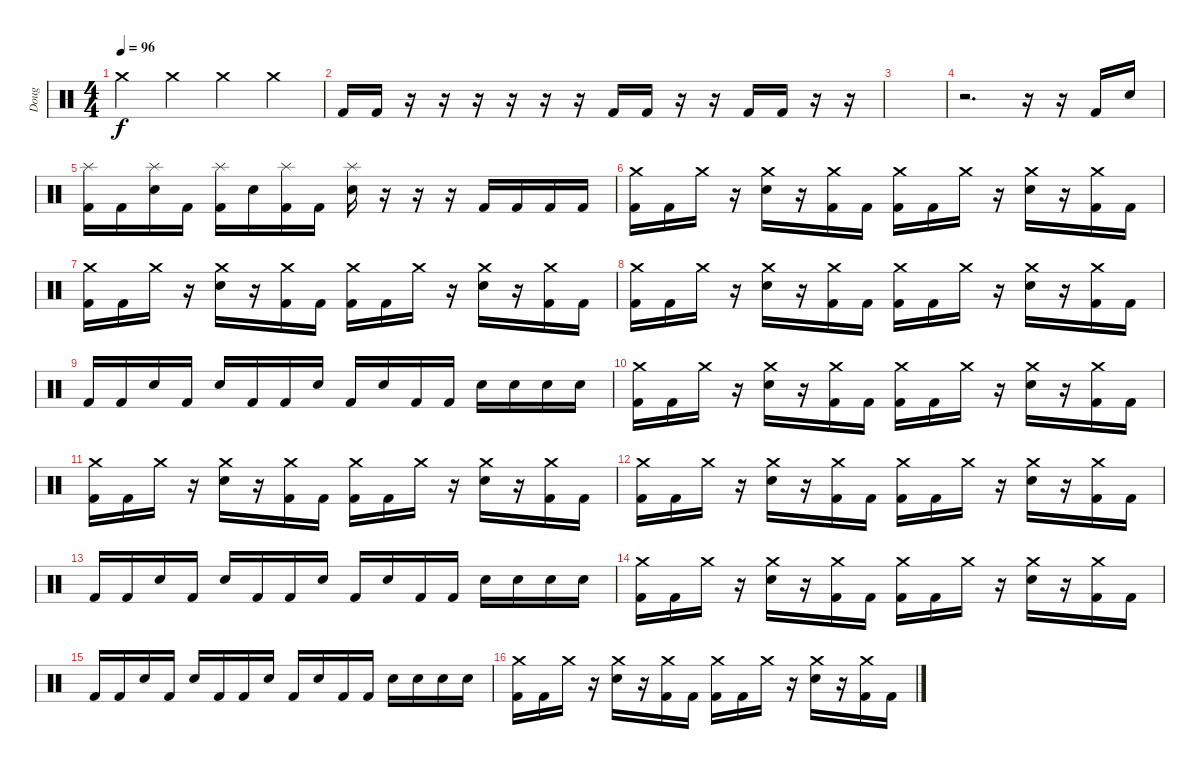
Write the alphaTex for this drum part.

\track ("Doug" "Doug") {instrument percussion}
\staff {score}
\articulation defaults
\ts (4 4)
\tempo 96
\clef neutral
\ks c "Crash medium (hit)".4{dy f} "Crash medium (hit)".4 "Crash medium (hit)".4 "Crash medium (hit)".4
|
"Kick (hit) 2".16 "Kick (hit) 2".16 r.16 r.16 r.16 r.16 r.16 r.16 "Kick (hit) 2".16 "Kick (hit) 2".16 r.16 r.16 "Kick (hit) 2".16 "Kick (hit) 2".16 r.16 r.16 |
|
r.2{d} r.16 r.16 "Kick (hit) 2".16 "Electric Snare (hit)".16 |
("Kick (hit) 2" "Splash (hit)").16 "Kick (hit) 2".16 ("Electric Snare (hit)" "Splash (hit)").16 "Kick (hit) 2".16 ("Kick (hit) 2" "Splash (hit)").16 "Electric Snare (hit)".16 ("Kick (hit) 2" "Splash (hit)").16 "Kick (hit) 2".16 ("Electric Snare (hit)" "Splash (hit)").16 r.16 r.16 r.16 "Kick (hit) 2".16 "Kick (hit) 2".16 "Kick (hit) 2".16 "Kick (hit) 2".16 |
("Kick (hit) 2" "Crash medium (hit)").16 "Kick (hit) 2".16 "Crash medium (hit)".16 r.16 ("Electric Snare (hit)" "Crash medium (hit)").16 r.16 ("Kick (hit) 2" "Crash medium (hit)").16 "Kick (hit) 2".16 ("Kick (hit) 2" "Crash medium (hit)").16 "Kick (hit) 2".16 "Crash medium (hit)".16 r.16 ("Electric Snare (hit)" "Crash medium (hit)").16 r.16 ("Kick (hit) 2" "Crash medium (hit)").16 "Kick (hit) 2".16 |
("Kick (hit) 2" "Crash medium (hit)").16 "Kick (hit) 2".16 "Crash medium (hit)".16 r.16 ("Electric Snare (hit)" "Crash medium (hit)").16 r.16 ("Kick (hit) 2" "Crash medium (hit)").16 "Kick (hit) 2".16 ("Kick (hit) 2" "Crash medium (hit)").16 "Kick (hit) 2".16 "Crash medium (hit)".16 r.16 ("Electric Snare (hit)" "Crash medium (hit)").16 r.16 ("Kick (hit) 2" "Crash medium (hit)").16 "Kick (hit) 2".16 |
("Kick (hit) 2" "Crash medium (hit)").16 "Kick (hit) 2".16 "Crash medium (hit)".16 r.16 ("Electric Snare (hit)" "Crash medium (hit)").16 r.16 ("Kick (hit) 2" "Crash medium (hit)").16 "Kick (hit) 2".16 ("Kick (hit) 2" "Crash medium (hit)").16 "Kick (hit) 2".16 "Crash medium (hit)".16 r.16 ("Electric Snare (hit)" "Crash medium (hit)").16 r.16 ("Kick (hit) 2" "Crash medium (hit)").16 "Kick (hit) 2".16 |
"Kick (hit) 2".16 "Kick (hit) 2".16 "Electric Snare (hit)".16 "Kick (hit) 2".16 "Electric Snare (hit)".16 "Kick (hit) 2".16 "Kick (hit) 2".16 "Electric Snare (hit)".16 "Kick (hit) 2".16 "Electric Snare (hit)".16 "Kick (hit) 2".16 "Kick (hit) 2".16 "Electric Snare (hit)".16 "Electric Snare (hit)".16 "Electric Snare (hit)".16 "Electric Snare (hit)".16 |
("Kick (hit) 2" "Crash medium (hit)").16 "Kick (hit) 2".16 "Crash medium (hit)".16 r.16 ("Electric Snare (hit)" "Crash medium (hit)").16 r.16 ("Kick (hit) 2" "Crash medium (hit)").16 "Kick (hit) 2".16 ("Kick (hit) 2" "Crash medium (hit)").16 "Kick (hit) 2".16 "Crash medium (hit)".16 r.16 ("Electric Snare (hit)" "Crash medium (hit)").16 r.16 ("Kick (hit) 2" "Crash medium (hit)").16 "Kick (hit) 2".16 |
("Kick (hit) 2" "Crash medium (hit)").16 "Kick (hit) 2".16 "Crash medium (hit)".16 r.16 ("Electric Snare (hit)" "Crash medium (hit)").16 r.16 ("Kick (hit) 2" "Crash medium (hit)").16 "Kick (hit) 2".16 ("Kick (hit) 2" "Crash medium (hit)").16 "Kick (hit) 2".16 "Crash medium (hit)".16 r.16 ("Electric Snare (hit)" "Crash medium (hit)").16 r.16 ("Kick (hit) 2" "Crash medium (hit)").16 "Kick (hit) 2".16 |
("Kick (hit) 2" "Crash medium (hit)").16 "Kick (hit) 2".16 "Crash medium (hit)".16 r.16 ("Electric Snare (hit)" "Crash medium (hit)").16 r.16 ("Kick (hit) 2" "Crash medium (hit)").16 "Kick (hit) 2".16 ("Kick (hit) 2" "Crash medium (hit)").16 "Kick (hit) 2".16 "Crash medium (hit)".16 r.16 ("Electric Snare (hit)" "Crash medium (hit)").16 r.16 ("Kick (hit) 2" "Crash medium (hit)").16 "Kick (hit) 2".16 |
"Kick (hit) 2".16 "Kick (hit) 2".16 "Electric Snare (hit)".16 "Kick (hit) 2".16 "Electric Snare (hit)".16 "Kick (hit) 2".16 "Kick (hit) 2".16 "Electric Snare (hit)".16 "Kick (hit) 2".16 "Electric Snare (hit)".16 "Kick (hit) 2".16 "Kick (hit) 2".16 "Electric Snare (hit)".16 "Electric Snare (hit)".16 "Electric Snare (hit)".16 "Electric Snare (hit)".16 |
("Kick (hit) 2" "Crash medium (hit)").16 "Kick (hit) 2".16 "Crash medium (hit)".16 r.16 ("Electric Snare (hit)" "Crash medium (hit)").16 r.16 ("Kick (hit) 2" "Crash medium (hit)").16 "Kick (hit) 2".16 ("Kick (hit) 2" "Crash medium (hit)").16 "Kick (hit) 2".16 "Crash medium (hit)".16 r.16 ("Electric Snare (hit)" "Crash medium (hit)").16 r.16 ("Kick (hit) 2" "Crash medium (hit)").16 "Kick (hit) 2".16 |
"Kick (hit) 2".16 "Kick (hit) 2".16 "Electric Snare (hit)".16 "Kick (hit) 2".16 "Electric Snare (hit)".16 "Kick (hit) 2".16 "Kick (hit) 2".16 "Electric Snare (hit)".16 "Kick (hit) 2".16 "Electric Snare (hit)".16 "Kick (hit) 2".16 "Kick (hit) 2".16 "Electric Snare (hit)".16 "Electric Snare (hit)".16 "Electric Snare (hit)".16 "Electric Snare (hit)".16 |
("Kick (hit) 2" "Crash medium (hit)").16 "Kick (hit) 2".16 "Crash medium (hit)".16 r.16 ("Electric Snare (hit)" "Crash medium (hit)").16 r.16 ("Kick (hit) 2" "Crash medium (hit)").16 "Kick (hit) 2".16 ("Kick (hit) 2" "Crash medium (hit)").16 "Kick (hit) 2".16 "Crash medium (hit)".16 r.16 ("Electric Snare (hit)" "Crash medium (hit)").16 r.16 ("Kick (hit) 2" "Crash medium (hit)").16 "Kick (hit) 2".16
